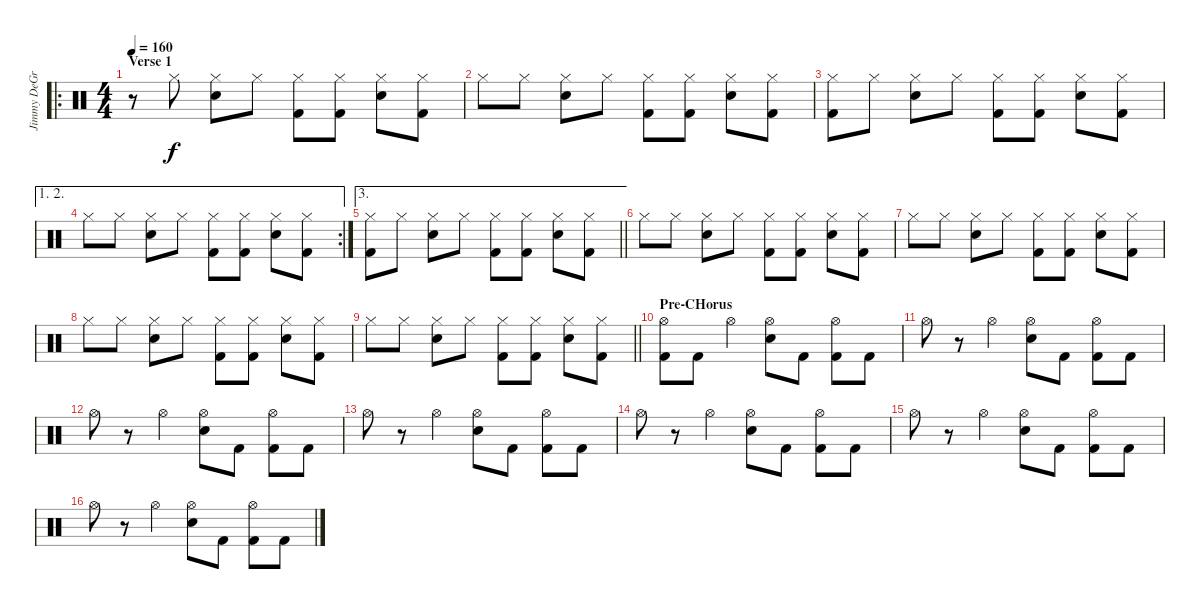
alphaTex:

\track ("Jimmy DeGrasso" "Jimmy DeGr") {instrument percussion}
\staff {score}
\articulation defaults
\ro
\ts (4 4)
\section ("" "Verse 1")
\tempo 160
\clef neutral
\ks c
r.8{dy f} "Hi-Hat (closed)".8 ("Hi-Hat (closed)" "Snare (hit) 2").8 "Hi-Hat (closed)".8 ("Hi-Hat (closed)" "Kick (hit) 2").8 ("Hi-Hat (closed)" "Kick (hit) 2").8 ("Hi-Hat (closed)" "Snare (hit) 2").8 ("Hi-Hat (closed)" "Kick (hit) 2").8 |
"Hi-Hat (closed)".8 "Hi-Hat (closed)".8 ("Hi-Hat (closed)" "Snare (hit) 2").8 "Hi-Hat (closed)".8 ("Hi-Hat (closed)" "Kick (hit) 2").8 ("Hi-Hat (closed)" "Kick (hit) 2").8 ("Hi-Hat (closed)" "Snare (hit) 2").8 ("Hi-Hat (closed)" "Kick (hit) 2").8 |
("Hi-Hat (closed)" "Kick (hit) 2").8 "Hi-Hat (closed)".8 ("Hi-Hat (closed)" "Snare (hit) 2").8 "Hi-Hat (closed)".8 ("Hi-Hat (closed)" "Kick (hit) 2").8 ("Hi-Hat (closed)" "Kick (hit) 2").8 ("Hi-Hat (closed)" "Snare (hit) 2").8 ("Hi-Hat (closed)" "Kick (hit) 2").8 |
\ae (1 2)
\rc 2 "Hi-Hat (closed)".8 "Hi-Hat (closed)".8
("Hi-Hat (closed)" "Snare (hit) 2").8 "Hi-Hat (closed)".8 ("Hi-Hat (closed)" "Kick (hit) 2").8 ("Hi-Hat (closed)" "Kick (hit) 2").8 ("Hi-Hat (closed)" "Snare (hit) 2").8 ("Hi-Hat (closed)" "Kick (hit) 2").8 |
\ae 3
\barLineRight lightlight
("Hi-Hat (closed)" "Kick (hit) 2").8 "Hi-Hat (closed)".8 ("Hi-Hat (closed)" "Snare (hit) 2").8 "Hi-Hat (closed)".8 ("Hi-Hat (closed)" "Kick (hit) 2").8 ("Hi-Hat (closed)" "Kick (hit) 2").8 ("Hi-Hat (closed)" "Snare (hit) 2").8 ("Hi-Hat (closed)" "Kick (hit) 2").8 |
"Hi-Hat (closed)".8 "Hi-Hat (closed)".8 ("Hi-Hat (closed)" "Snare (hit) 2").8 "Hi-Hat (closed)".8 ("Hi-Hat (closed)" "Kick (hit) 2").8 ("Hi-Hat (closed)" "Kick (hit) 2").8 ("Hi-Hat (closed)" "Snare (hit) 2").8 ("Hi-Hat (closed)" "Kick (hit) 2").8 |
"Hi-Hat (closed)".8 "Hi-Hat (closed)".8 ("Hi-Hat (closed)" "Snare (hit) 2").8 "Hi-Hat (closed)".8 ("Hi-Hat (closed)" "Kick (hit) 2").8 ("Hi-Hat (closed)" "Kick (hit) 2").8 ("Hi-Hat (closed)" "Snare (hit) 2").8 ("Hi-Hat (closed)" "Kick (hit) 2").8 |
"Hi-Hat (closed)".8 "Hi-Hat (closed)".8 ("Hi-Hat (closed)" "Snare (hit) 2").8 "Hi-Hat (closed)".8 ("Hi-Hat (closed)" "Kick (hit) 2").8 ("Hi-Hat (closed)" "Kick (hit) 2").8 ("Hi-Hat (closed)" "Snare (hit) 2").8 ("Hi-Hat (closed)" "Kick (hit) 2").8 |
\barLineRight lightlight "Hi-Hat (closed)".8 "Hi-Hat (closed)".8
("Hi-Hat (closed)" "Snare (hit) 2").8 "Hi-Hat (closed)".8 ("Hi-Hat (closed)" "Kick (hit) 2").8 ("Hi-Hat (closed)" "Kick (hit) 2").8 ("Hi-Hat (closed)" "Snare (hit) 2").8 ("Hi-Hat (closed)" "Kick (hit) 2").8 |
\section ("" "Pre-CHorus")
("Hi-Hat (open)" "Kick (hit) 2").8 "Kick (hit) 2".8 "Hi-Hat (open)".4 ("Hi-Hat (open)" "Snare (hit) 2").8 "Kick (hit) 2".8 ("Hi-Hat (open)" "Kick (hit) 2").8 "Kick (hit) 2".8 |
"Hi-Hat (open)".8 r.8 "Hi-Hat (open)".4 ("Hi-Hat (open)" "Snare (hit) 2").8 "Kick (hit) 2".8 ("Hi-Hat (open)" "Kick (hit) 2").8 "Kick (hit) 2".8 |
"Hi-Hat (open)".8 r.8 "Hi-Hat (open)".4 ("Hi-Hat (open)" "Snare (hit) 2").8 "Kick (hit) 2".8 ("Hi-Hat (open)" "Kick (hit) 2").8 "Kick (hit) 2".8 |
"Hi-Hat (open)".8 r.8 "Hi-Hat (open)".4 ("Hi-Hat (open)" "Snare (hit) 2").8 "Kick (hit) 2".8 ("Hi-Hat (open)" "Kick (hit) 2").8 "Kick (hit) 2".8 |
"Hi-Hat (open)".8 r.8 "Hi-Hat (open)".4 ("Hi-Hat (open)" "Snare (hit) 2").8 "Kick (hit) 2".8 ("Hi-Hat (open)" "Kick (hit) 2").8 "Kick (hit) 2".8 |
"Hi-Hat (open)".8 r.8 "Hi-Hat (open)".4 ("Hi-Hat (open)" "Snare (hit) 2").8 "Kick (hit) 2".8 ("Hi-Hat (open)" "Kick (hit) 2").8 "Kick (hit) 2".8 |
"Hi-Hat (open)".8 r.8 "Hi-Hat (open)".4 ("Hi-Hat (open)" "Snare (hit) 2").8 "Kick (hit) 2".8 ("Hi-Hat (open)" "Kick (hit) 2").8 "Kick (hit) 2".8
